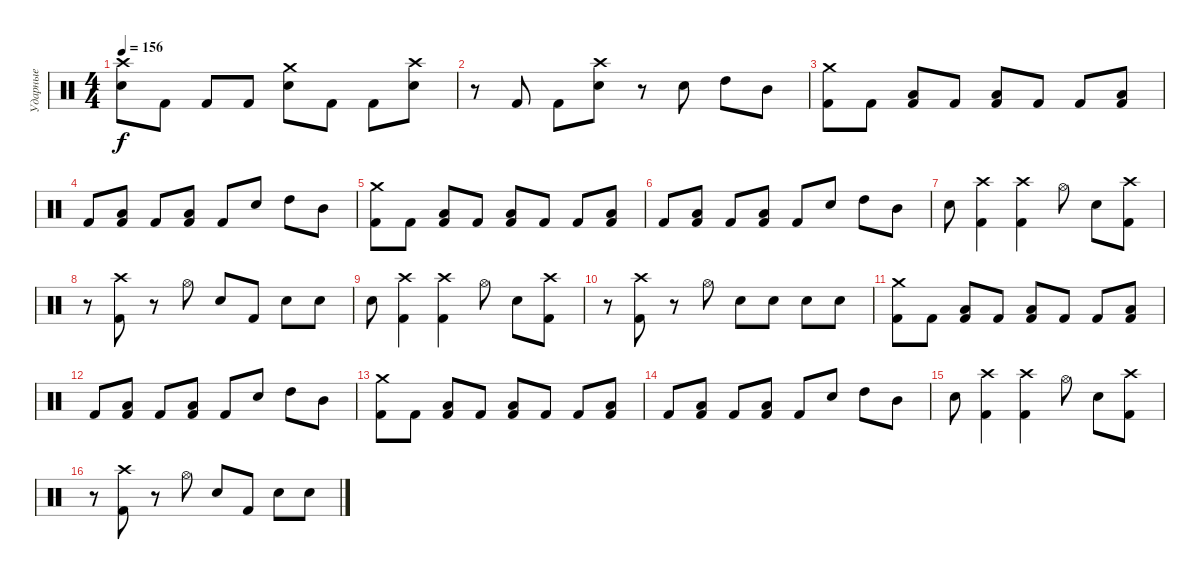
\track ("Ударные" "Ударные") {instrument percussion}
\staff {score}
\articulation defaults
\ts (4 4)
\tempo 156
\clef neutral
\ks c
("Crash high (hit)" "Electric Snare (hit)").8{dy f} "Kick (hit) 2".8 "Kick (hit) 2".8 "Kick (hit) 2".8 ("Crash medium (hit)" "Electric Snare (hit)").8 "Kick (hit) 2".8 "Kick (hit) 2".8 ("Crash high (hit)" "Electric Snare (hit)").8 |
r.8 "Kick (hit) 2".8 "Kick (hit) 2".8 ("Crash high (hit)" "Electric Snare (hit)").8 r.8 "Electric Snare (hit)".8 "High Tom (hit)".8 "Mid Tom (hit)".8 |
("Crash medium (hit)" "Kick (hit) 2").8 "Kick (hit) 2".8 ("Low Tom (hit)" "Kick (hit) 2").8 "Kick (hit) 2".8 ("Low Tom (hit)" "Kick (hit) 2").8 "Kick (hit) 2".8 "Kick (hit) 2".8 ("Low Tom (hit)" "Kick (hit) 2").8 |
"Kick (hit) 2".8 ("Low Tom (hit)" "Kick (hit) 2").8 "Kick (hit) 2".8 ("Low Tom (hit)" "Kick (hit) 2").8 "Kick (hit) 2".8 "Electric Snare (hit)".8 "High Tom (hit)".8 "Mid Tom (hit)".8 |
("Crash medium (hit)" "Kick (hit) 2").8 "Kick (hit) 2".8 ("Low Tom (hit)" "Kick (hit) 2").8 "Kick (hit) 2".8 ("Low Tom (hit)" "Kick (hit) 2").8 "Kick (hit) 2".8 "Kick (hit) 2".8 ("Low Tom (hit)" "Kick (hit) 2").8 |
"Kick (hit) 2".8 ("Low Tom (hit)" "Kick (hit) 2").8 "Kick (hit) 2".8 ("Low Tom (hit)" "Kick (hit) 2").8 "Kick (hit) 2".8 "Electric Snare (hit)".8 "High Tom (hit)".8 "Mid Tom (hit)".8 |
"Electric Snare (hit)".8 ("Crash high (hit)" "Kick (hit) 2").4 ("Crash high (hit)" "Kick (hit) 2").4 "Hi-Hat (open)".8 "Electric Snare (hit)".8 ("Crash high (hit)" "Kick (hit) 2").8 |
r.8 ("Crash high (hit)" "Kick (hit) 2").8 r.8 "Hi-Hat (open)".8 "Electric Snare (hit)".8 "Kick (hit) 2".8 "Electric Snare (hit)".8 "Electric Snare (hit)".8 |
"Electric Snare (hit)".8 ("Crash high (hit)" "Kick (hit) 2").4 ("Crash high (hit)" "Kick (hit) 2").4 "Hi-Hat (open)".8 "Electric Snare (hit)".8 ("Crash high (hit)" "Kick (hit) 2").8 |
r.8 ("Crash high (hit)" "Kick (hit) 2").8 r.8 "Hi-Hat (open)".8 "Electric Snare (hit)".8 "Electric Snare (hit)".8 "Electric Snare (hit)".8 "Electric Snare (hit)".8 |
("Crash medium (hit)" "Kick (hit) 2").8 "Kick (hit) 2".8 ("Low Tom (hit)" "Kick (hit) 2").8 "Kick (hit) 2".8 ("Low Tom (hit)" "Kick (hit) 2").8 "Kick (hit) 2".8 "Kick (hit) 2".8 ("Low Tom (hit)" "Kick (hit) 2").8 |
"Kick (hit) 2".8 ("Low Tom (hit)" "Kick (hit) 2").8 "Kick (hit) 2".8 ("Low Tom (hit)" "Kick (hit) 2").8 "Kick (hit) 2".8 "Electric Snare (hit)".8 "High Tom (hit)".8 "Mid Tom (hit)".8 |
("Crash medium (hit)" "Kick (hit) 2").8 "Kick (hit) 2".8 ("Low Tom (hit)" "Kick (hit) 2").8 "Kick (hit) 2".8 ("Low Tom (hit)" "Kick (hit) 2").8 "Kick (hit) 2".8 "Kick (hit) 2".8 ("Low Tom (hit)" "Kick (hit) 2").8 |
"Kick (hit) 2".8 ("Low Tom (hit)" "Kick (hit) 2").8 "Kick (hit) 2".8 ("Low Tom (hit)" "Kick (hit) 2").8 "Kick (hit) 2".8 "Electric Snare (hit)".8 "High Tom (hit)".8 "Mid Tom (hit)".8 |
"Electric Snare (hit)".8 ("Crash high (hit)" "Kick (hit) 2").4 ("Crash high (hit)" "Kick (hit) 2").4 "Hi-Hat (open)".8 "Electric Snare (hit)".8 ("Crash high (hit)" "Kick (hit) 2").8 |
r.8 ("Crash high (hit)" "Kick (hit) 2").8 r.8 "Hi-Hat (open)".8 "Electric Snare (hit)".8 "Kick (hit) 2".8 "Electric Snare (hit)".8 "Electric Snare (hit)".8
